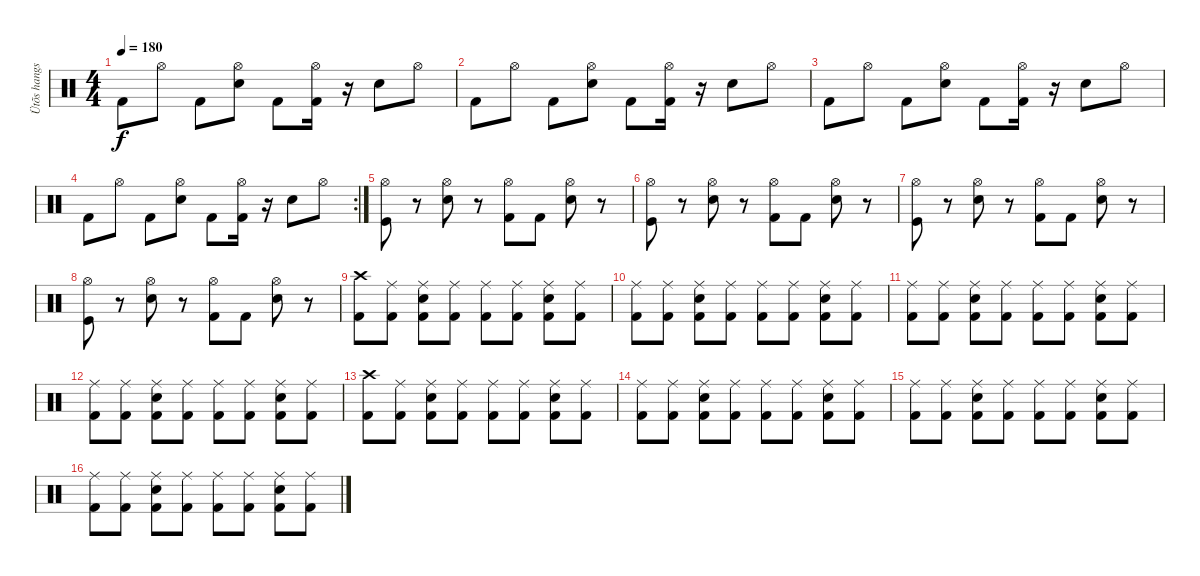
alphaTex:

\track ("Ütõs hangszer" "Ütõs hangs") {instrument percussion}
\staff {score}
\articulation defaults
\ts (4 4)
\tempo 180
\clef neutral
\ks c "Kick (hit) 2".8{dy f} "Hi-Hat (open)".8 "Kick (hit) 2".8
("Hi-Hat (open)" "Electric Snare (hit)").8 "Kick (hit) 2".8 ("Hi-Hat (open)" "Kick (hit) 2").16 r.16 "Electric Snare (hit)".8 "Hi-Hat (open)".8 |
"Kick (hit) 2".8 "Hi-Hat (open)".8 "Kick (hit) 2".8 ("Hi-Hat (open)" "Electric Snare (hit)").8 "Kick (hit) 2".8 ("Hi-Hat (open)" "Kick (hit) 2").16 r.16 "Electric Snare (hit)".8 "Hi-Hat (open)".8 |
"Kick (hit) 2".8 "Hi-Hat (open)".8 "Kick (hit) 2".8 ("Hi-Hat (open)" "Electric Snare (hit)").8 "Kick (hit) 2".8 ("Hi-Hat (open)" "Kick (hit) 2").16 r.16 "Electric Snare (hit)".8 "Hi-Hat (open)".8 |
\rc 2 "Kick (hit) 2".8 "Hi-Hat (open)".8 "Kick (hit) 2".8
("Hi-Hat (open)" "Electric Snare (hit)").8 "Kick (hit) 2".8 ("Hi-Hat (open)" "Kick (hit) 2").16 r.16 "Electric Snare (hit)".8 "Hi-Hat (open)".8 |
("Hi-Hat (open)" "Kick (hit)").8 r.8 ("Hi-Hat (open)" "Electric Snare (hit)").8 r.8 ("Hi-Hat (open)" "Kick (hit) 2").8 "Kick (hit) 2".8 ("Hi-Hat (open)" "Electric Snare (hit)").8 r.8 |
("Hi-Hat (open)" "Kick (hit)").8 r.8 ("Hi-Hat (open)" "Electric Snare (hit)").8 r.8 ("Hi-Hat (open)" "Kick (hit) 2").8 "Kick (hit) 2".8 ("Hi-Hat (open)" "Electric Snare (hit)").8 r.8 |
("Hi-Hat (open)" "Kick (hit)").8 r.8 ("Hi-Hat (open)" "Electric Snare (hit)").8 r.8 ("Hi-Hat (open)" "Kick (hit) 2").8 "Kick (hit) 2".8 ("Hi-Hat (open)" "Electric Snare (hit)").8 r.8 |
("Hi-Hat (open)" "Kick (hit)").8 r.8 ("Hi-Hat (open)" "Electric Snare (hit)").8 r.8 ("Hi-Hat (open)" "Kick (hit) 2").8 "Kick (hit) 2".8 ("Hi-Hat (open)" "Electric Snare (hit)").8 r.8 |
("Crash high (hit)" "Kick (hit) 2").8 ("Ride (middle)" "Kick (hit) 2").8 ("Ride (middle)" "Electric Snare (hit)" "Kick (hit) 2").8 ("Ride (middle)" "Kick (hit) 2").8 ("Ride (middle)" "Kick (hit) 2").8 ("Ride (middle)" "Kick (hit) 2").8 ("Ride (middle)" "Electric Snare (hit)" "Kick (hit) 2").8 ("Ride (middle)" "Kick (hit) 2").8 |
("Ride (middle)" "Kick (hit) 2").8 ("Ride (middle)" "Kick (hit) 2").8 ("Ride (middle)" "Electric Snare (hit)" "Kick (hit) 2").8 ("Ride (middle)" "Kick (hit) 2").8 ("Ride (middle)" "Kick (hit) 2").8 ("Ride (middle)" "Kick (hit) 2").8 ("Ride (middle)" "Electric Snare (hit)" "Kick (hit) 2").8 ("Ride (middle)" "Kick (hit) 2").8 |
("Ride (middle)" "Kick (hit) 2").8 ("Ride (middle)" "Kick (hit) 2").8 ("Ride (middle)" "Electric Snare (hit)" "Kick (hit) 2").8 ("Ride (middle)" "Kick (hit) 2").8 ("Ride (middle)" "Kick (hit) 2").8 ("Ride (middle)" "Kick (hit) 2").8 ("Ride (middle)" "Electric Snare (hit)" "Kick (hit) 2").8 ("Ride (middle)" "Kick (hit) 2").8 |
("Ride (middle)" "Kick (hit) 2").8 ("Ride (middle)" "Kick (hit) 2").8 ("Ride (middle)" "Electric Snare (hit)" "Kick (hit) 2").8 ("Ride (middle)" "Kick (hit) 2").8 ("Ride (middle)" "Kick (hit) 2").8 ("Ride (middle)" "Kick (hit) 2").8 ("Ride (middle)" "Electric Snare (hit)" "Kick (hit) 2").8 ("Ride (middle)" "Kick (hit) 2").8 |
("Crash high (hit)" "Kick (hit) 2").8 ("Ride (middle)" "Kick (hit) 2").8 ("Ride (middle)" "Electric Snare (hit)" "Kick (hit) 2").8 ("Ride (middle)" "Kick (hit) 2").8 ("Ride (middle)" "Kick (hit) 2").8 ("Ride (middle)" "Kick (hit) 2").8 ("Ride (middle)" "Electric Snare (hit)" "Kick (hit) 2").8 ("Ride (middle)" "Kick (hit) 2").8 |
("Ride (middle)" "Kick (hit) 2").8 ("Ride (middle)" "Kick (hit) 2").8 ("Ride (middle)" "Electric Snare (hit)" "Kick (hit) 2").8 ("Ride (middle)" "Kick (hit) 2").8 ("Ride (middle)" "Kick (hit) 2").8 ("Ride (middle)" "Kick (hit) 2").8 ("Ride (middle)" "Electric Snare (hit)" "Kick (hit) 2").8 ("Ride (middle)" "Kick (hit) 2").8 |
("Ride (middle)" "Kick (hit) 2").8 ("Ride (middle)" "Kick (hit) 2").8 ("Ride (middle)" "Electric Snare (hit)" "Kick (hit) 2").8 ("Ride (middle)" "Kick (hit) 2").8 ("Ride (middle)" "Kick (hit) 2").8 ("Ride (middle)" "Kick (hit) 2").8 ("Ride (middle)" "Electric Snare (hit)" "Kick (hit) 2").8 ("Ride (middle)" "Kick (hit) 2").8 |
("Ride (middle)" "Kick (hit) 2").8 ("Ride (middle)" "Kick (hit) 2").8 ("Ride (middle)" "Electric Snare (hit)" "Kick (hit) 2").8 ("Ride (middle)" "Kick (hit) 2").8 ("Ride (middle)" "Kick (hit) 2").8 ("Ride (middle)" "Kick (hit) 2").8 ("Ride (middle)" "Electric Snare (hit)" "Kick (hit) 2").8 ("Ride (middle)" "Kick (hit) 2").8
